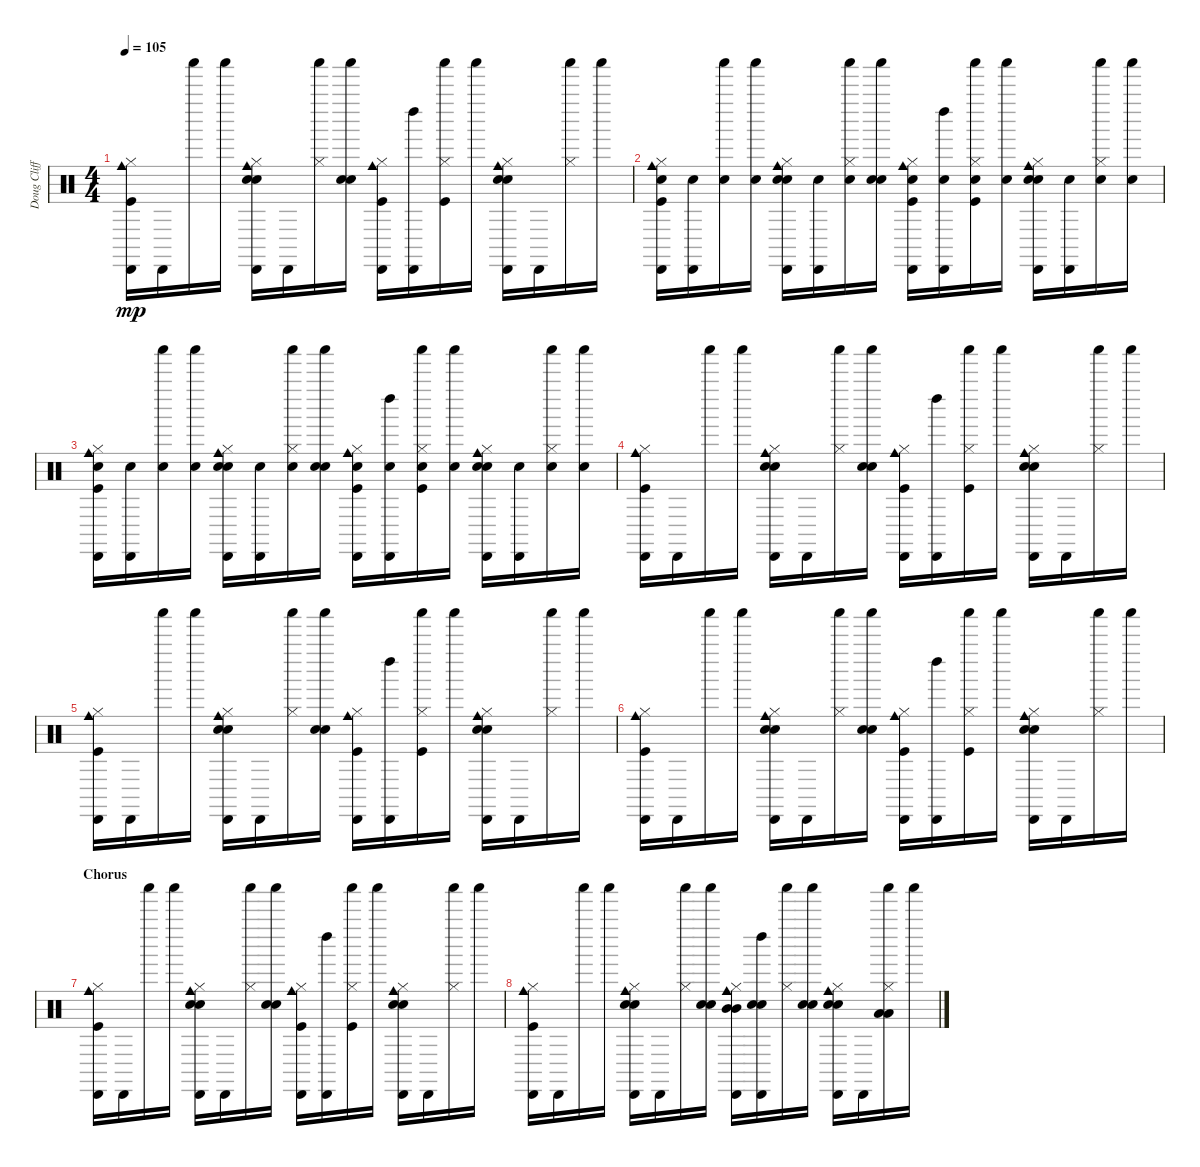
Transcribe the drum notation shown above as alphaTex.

\track ("Doug Clifford" "Doug Cliff") {instrument percussion}
\staff {score}
\articulation defaults
\ts (4 4)
\tempo 105
\clef neutral
\ks c
("Cowbell medium (hit)" "Cabasa (hit)" "Kick (hit)" "Hi-Hat (closed)").16{dy mp} "Cabasa (hit)".16 "Shaker (hit)".16 "Shaker (hit)".16 ("Electric Snare (hit)" "Snare (hit) 2" "Cowbell medium (hit)" "Cabasa (hit)" "Hi-Hat (closed)").16 "Cabasa (hit)".16 ("Shaker (hit)" "Hi-Hat (closed)").16 ("Electric Snare (hit)" "Snare (hit) 2" "Shaker (hit)").16 ("Cabasa (hit)" "Kick (hit)" "Cowbell medium (hit)" "Hi-Hat (closed)").16 ("Left Maraca (hit)" "Cabasa (hit)").16 ("Shaker (hit)" "Kick (hit)" "Hi-Hat (closed)").16 "Shaker (hit)".16 ("Electric Snare (hit)" "Cowbell medium (hit)" "Snare (hit) 2" "Cabasa (hit)" "Hi-Hat (closed)").16 "Cabasa (hit)".16 ("Hi-Hat (closed)" "Shaker (hit)").16 "Shaker (hit)".16 |
("Snare (hit)" "Kick (hit)" "Cowbell medium (hit)" "Cabasa (hit)" "Hi-Hat (closed)").16 ("Snare (hit)" "Cabasa (hit)").16 ("Snare (hit)" "Shaker (hit)").16 ("Snare (hit)" "Shaker (hit)").16 ("Snare (hit)" "Cabasa (hit)" "Cowbell medium (hit)" "Electric Snare (hit)" "Hi-Hat (closed)").16 ("Snare (hit)" "Cabasa (hit)").16 ("Snare (hit)" "Shaker (hit)" "Hi-Hat (closed)").16 ("Snare (hit)" "Shaker (hit)" "Electric Snare (hit)").16 ("Snare (hit)" "Kick (hit)" "Cowbell medium (hit)" "Cabasa (hit)" "Hi-Hat (closed)").16 ("Snare (hit)" "Left Maraca (hit)" "Cabasa (hit)").16 ("Snare (hit)" "Kick (hit)" "Hi-Hat (closed)" "Shaker (hit)").16 ("Snare (hit)" "Shaker (hit)").16 ("Snare (hit)" "Cabasa (hit)" "Electric Snare (hit)" "Cowbell medium (hit)" "Hi-Hat (closed)").16 ("Snare (hit)" "Cabasa (hit)").16 ("Snare (hit)" "Hi-Hat (closed)" "Shaker (hit)").16 ("Snare (hit)" "Shaker (hit)").16 |
("Snare (hit)" "Cowbell medium (hit)" "Kick (hit)" "Cabasa (hit)" "Hi-Hat (closed)").16 ("Snare (hit)" "Cabasa (hit)").16 ("Snare (hit)" "Shaker (hit)").16 ("Snare (hit)" "Shaker (hit)").16 ("Snare (hit)" "Cowbell medium (hit)" "Cabasa (hit)" "Electric Snare (hit)" "Hi-Hat (closed)").16 ("Snare (hit)" "Cabasa (hit)").16 ("Snare (hit)" "Shaker (hit)" "Hi-Hat (closed)").16 ("Snare (hit)" "Electric Snare (hit)" "Shaker (hit)").16 ("Snare (hit)" "Cabasa (hit)" "Hi-Hat (closed)" "Kick (hit)" "Cowbell medium (hit)").16 ("Snare (hit)" "Left Maraca (hit)" "Cabasa (hit)").16 ("Snare (hit)" "Kick (hit)" "Hi-Hat (closed)" "Shaker (hit)").16 ("Snare (hit)" "Shaker (hit)").16 ("Snare (hit)" "Cabasa (hit)" "Electric Snare (hit)" "Cowbell medium (hit)" "Hi-Hat (closed)").16 ("Snare (hit)" "Cabasa (hit)").16 ("Snare (hit)" "Hi-Hat (closed)" "Shaker (hit)").16 ("Snare (hit)" "Shaker (hit)").16 |
("Cowbell medium (hit)" "Cabasa (hit)" "Kick (hit)" "Hi-Hat (closed)").16 "Cabasa (hit)".16 "Shaker (hit)".16 "Shaker (hit)".16 ("Electric Snare (hit)" "Snare (hit) 2" "Cowbell medium (hit)" "Cabasa (hit)" "Hi-Hat (closed)").16 "Cabasa (hit)".16 ("Shaker (hit)" "Hi-Hat (closed)").16 ("Electric Snare (hit)" "Snare (hit) 2" "Shaker (hit)").16 ("Cabasa (hit)" "Kick (hit)" "Cowbell medium (hit)" "Hi-Hat (closed)").16 ("Left Maraca (hit)" "Cabasa (hit)").16 ("Shaker (hit)" "Kick (hit)" "Hi-Hat (closed)").16 "Shaker (hit)".16 ("Electric Snare (hit)" "Cowbell medium (hit)" "Snare (hit) 2" "Cabasa (hit)" "Hi-Hat (closed)").16 "Cabasa (hit)".16 ("Hi-Hat (closed)" "Shaker (hit)").16 "Shaker (hit)".16 |
("Cowbell medium (hit)" "Cabasa (hit)" "Kick (hit)" "Hi-Hat (closed)").16 "Cabasa (hit)".16 "Shaker (hit)".16 "Shaker (hit)".16 ("Electric Snare (hit)" "Snare (hit) 2" "Cowbell medium (hit)" "Cabasa (hit)" "Hi-Hat (closed)").16 "Cabasa (hit)".16 ("Shaker (hit)" "Hi-Hat (closed)").16 ("Electric Snare (hit)" "Snare (hit) 2" "Shaker (hit)").16 ("Cabasa (hit)" "Kick (hit)" "Cowbell medium (hit)" "Hi-Hat (closed)").16 ("Left Maraca (hit)" "Cabasa (hit)").16 ("Shaker (hit)" "Kick (hit)" "Hi-Hat (closed)").16 "Shaker (hit)".16 ("Electric Snare (hit)" "Cowbell medium (hit)" "Snare (hit) 2" "Cabasa (hit)" "Hi-Hat (closed)").16 "Cabasa (hit)".16 ("Hi-Hat (closed)" "Shaker (hit)").16 "Shaker (hit)".16 |
("Cowbell medium (hit)" "Cabasa (hit)" "Kick (hit)" "Hi-Hat (closed)").16 "Cabasa (hit)".16 "Shaker (hit)".16 "Shaker (hit)".16 ("Electric Snare (hit)" "Snare (hit) 2" "Cowbell medium (hit)" "Cabasa (hit)" "Hi-Hat (closed)").16 "Cabasa (hit)".16 ("Shaker (hit)" "Hi-Hat (closed)").16 ("Electric Snare (hit)" "Snare (hit) 2" "Shaker (hit)").16 ("Cabasa (hit)" "Kick (hit)" "Cowbell medium (hit)" "Hi-Hat (closed)").16 ("Left Maraca (hit)" "Cabasa (hit)").16 ("Shaker (hit)" "Kick (hit)" "Hi-Hat (closed)").16 "Shaker (hit)".16 ("Electric Snare (hit)" "Cowbell medium (hit)" "Snare (hit) 2" "Cabasa (hit)" "Hi-Hat (closed)").16 "Cabasa (hit)".16 ("Hi-Hat (closed)" "Shaker (hit)").16 "Shaker (hit)".16 |
\section ("" "Chorus")
("Cowbell medium (hit)" "Cabasa (hit)" "Kick (hit)" "Hi-Hat (closed)").16 "Cabasa (hit)".16 "Shaker (hit)".16 "Shaker (hit)".16 ("Electric Snare (hit)" "Snare (hit) 2" "Cowbell medium (hit)" "Cabasa (hit)" "Hi-Hat (closed)").16 "Cabasa (hit)".16 ("Shaker (hit)" "Hi-Hat (closed)").16 ("Electric Snare (hit)" "Snare (hit) 2" "Shaker (hit)").16 ("Cabasa (hit)" "Kick (hit)" "Cowbell medium (hit)" "Hi-Hat (closed)").16 ("Left Maraca (hit)" "Cabasa (hit)").16 ("Shaker (hit)" "Kick (hit)" "Hi-Hat (closed)").16 "Shaker (hit)".16 ("Electric Snare (hit)" "Cowbell medium (hit)" "Snare (hit) 2" "Cabasa (hit)" "Hi-Hat (closed)").16 "Cabasa (hit)".16 ("Hi-Hat (closed)" "Shaker (hit)").16 "Shaker (hit)".16 |
("Cowbell medium (hit)" "Cabasa (hit)" "Kick (hit)" "Hi-Hat (closed)").16 "Cabasa (hit)".16 "Shaker (hit)".16 "Shaker (hit)".16 ("Snare (hit) 2" "Cabasa (hit)" "Cowbell medium (hit)" "Electric Snare (hit)" "Hi-Hat (closed)").16 "Cabasa (hit)".16 ("Shaker (hit)" "Hi-Hat (closed)").16 ("Snare (hit) 2" "Electric Snare (hit)" "Shaker (hit)").16 ("Mid Tom (hit)" "Hi-Hat (closed)" "Mid Tom (hit)" "Cowbell medium (hit)" "Cabasa (hit)").16 ("Snare (hit) 2" "Left Maraca (hit)" "Cabasa (hit)" "Electric Snare (hit)").16 ("Shaker (hit)" "Hi-Hat (closed)").16 ("Snare (hit) 2" "Electric Snare (hit)" "Shaker (hit)").16 ("Snare (hit) 2" "Electric Snare (hit)" "Cowbell medium (hit)" "Cabasa (hit)" "Hi-Hat (closed)").16 "Cabasa (hit)".16 ("Low Tom (hit)" "Hi-Hat (closed)" "Low Tom (hit)" "Shaker (hit)").16 "Shaker (hit)".16
